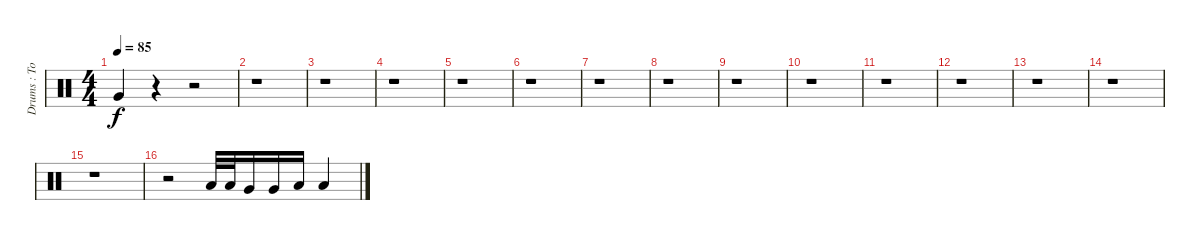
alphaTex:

\track ("Drums : Toms" "Drums : To") {instrument percussion}
\staff {score}
\articulation defaults
\ts (4 4)
\tempo 85
\clef neutral
\ks c "Very Low Tom (hit)".4{dy f}
r.4 r.2 |
r.1 |
r.1 |
r.1 |
r.1 |
r.1 |
r.1 |
r.1 |
r.1 |
r.1 |
r.1 |
r.1 |
r.1 |
r.1 |
r.1 |
r.2 "Low Tom (hit)".32 "Low Tom (hit)".32 "Very Low Tom (hit)".16 "Very Low Tom (hit)".16 "Low Floor Tom (hit)".16 "Low Floor Tom (hit)".4
